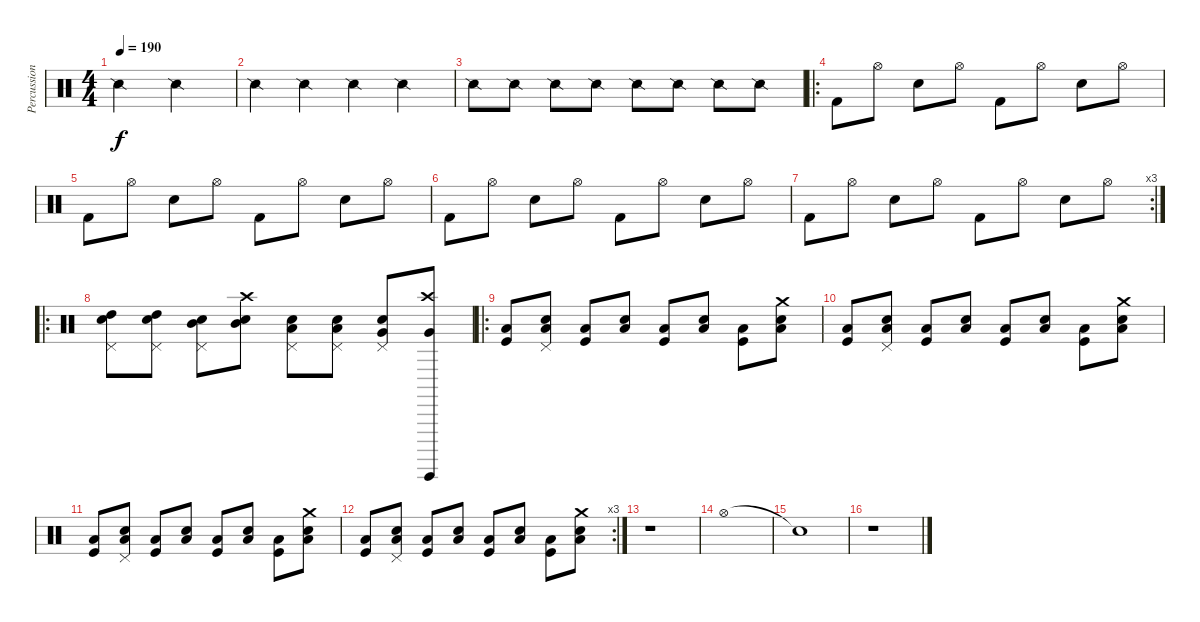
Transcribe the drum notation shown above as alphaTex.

\track ("Percussions" "Percussion") {instrument percussion}
\staff {score}
\articulation defaults
\ts (4 4)
\tempo 190
\clef neutral
\ks c "Snare (side stick) 2".2{dy f} "Snare (side stick) 2".2
|
"Snare (side stick) 2".4 "Snare (side stick) 2".4 "Snare (side stick) 2".4 "Snare (side stick) 2".4 |
"Snare (side stick) 2".8 "Snare (side stick) 2".8 "Snare (side stick) 2".8 "Snare (side stick) 2".8 "Snare (side stick) 2".8 "Snare (side stick) 2".8 "Snare (side stick) 2".8 "Snare (side stick) 2".8 |
\ro "Kick (hit) 2".8 "Hi-Hat (open)".8 "Snare (hit) 2".8 "Hi-Hat (open)".8 "Kick (hit) 2".8 "Hi-Hat (open)".8 "Snare (hit) 2".8 "Hi-Hat (open)".8
|
"Kick (hit) 2".8 "Hi-Hat (open)".8 "Snare (hit) 2".8 "Hi-Hat (open)".8 "Kick (hit) 2".8 "Hi-Hat (open)".8 "Snare (hit) 2".8 "Hi-Hat (open)".8 |
"Kick (hit) 2".8 "Hi-Hat (open)".8 "Snare (hit) 2".8 "Hi-Hat (open)".8 "Kick (hit) 2".8 "Hi-Hat (open)".8 "Snare (hit) 2".8 "Hi-Hat (open)".8 |
\rc 3 "Kick (hit) 2".8 "Hi-Hat (open)".8 "Snare (hit) 2".8 "Hi-Hat (open)".8 "Kick (hit) 2".8 "Hi-Hat (open)".8 "Snare (hit) 2".8 "Hi-Hat (open)".8
|
\ro
("Electric Snare (hit)" "Pedal Hi-Hat (hit)" "High Tom (hit)").8 ("Electric Snare (hit)" "Pedal Hi-Hat (hit)" "High Tom (hit)").8 ("Electric Snare (hit)" "Pedal Hi-Hat (hit)" "Mid Tom (hit)").8 ("Electric Snare (hit)" "Crash high (hit)" "Mid Tom (hit)").8 ("Electric Snare (hit)" "Pedal Hi-Hat (hit)" "Low Tom (hit)").8 ("Electric Snare (hit)" "Pedal Hi-Hat (hit)" "Low Tom (hit)").8 ("Electric Snare (hit)" "Pedal Hi-Hat (hit)" "Very Low Tom (hit)").8 ("Guiro (hit)" "Crash high (hit)" "Very Low Tom (hit)").8 |
\ro
("Low Floor Tom (hit)" "Kick (hit)").8 ("Low Floor Tom (hit)" "Snare (hit) 2" "Pedal Hi-Hat (hit)").8 ("Low Floor Tom (hit)" "Kick (hit)").8 ("Low Floor Tom (hit)" "Snare (hit) 2").8 ("Low Floor Tom (hit)" "Kick (hit)").8 ("Low Floor Tom (hit)" "Snare (hit) 2").8 ("Low Floor Tom (hit)" "Kick (hit)").8 ("Low Floor Tom (hit)" "Snare (hit) 2" "Crash medium (hit)").8 |
("Low Floor Tom (hit)" "Kick (hit)").8 ("Low Floor Tom (hit)" "Snare (hit) 2" "Pedal Hi-Hat (hit)").8 ("Low Floor Tom (hit)" "Kick (hit)").8 ("Low Floor Tom (hit)" "Snare (hit) 2").8 ("Low Floor Tom (hit)" "Kick (hit)").8 ("Low Floor Tom (hit)" "Snare (hit) 2").8 ("Low Floor Tom (hit)" "Kick (hit)").8 ("Low Floor Tom (hit)" "Snare (hit) 2" "Crash medium (hit)").8 |
("Low Floor Tom (hit)" "Kick (hit)").8 ("Low Floor Tom (hit)" "Snare (hit) 2" "Pedal Hi-Hat (hit)").8 ("Low Floor Tom (hit)" "Kick (hit)").8 ("Low Floor Tom (hit)" "Snare (hit) 2").8 ("Low Floor Tom (hit)" "Kick (hit)").8 ("Low Floor Tom (hit)" "Snare (hit) 2").8 ("Low Floor Tom (hit)" "Kick (hit)").8 ("Low Floor Tom (hit)" "Snare (hit) 2" "Crash medium (hit)").8 |
\rc 3
("Low Floor Tom (hit)" "Kick (hit)").8 ("Low Floor Tom (hit)" "Snare (hit) 2" "Pedal Hi-Hat (hit)").8 ("Low Floor Tom (hit)" "Kick (hit)").8 ("Low Floor Tom (hit)" "Snare (hit) 2").8 ("Low Floor Tom (hit)" "Kick (hit)").8 ("Low Floor Tom (hit)" "Snare (hit) 2").8 ("Low Floor Tom (hit)" "Kick (hit)").8 ("Low Floor Tom (hit)" "Snare (hit) 2" "Crash medium (hit)").8 |
r.1 |
"Hi-Hat (open)".1 |
"Snare (hit)"{t}.1 |
r.1
